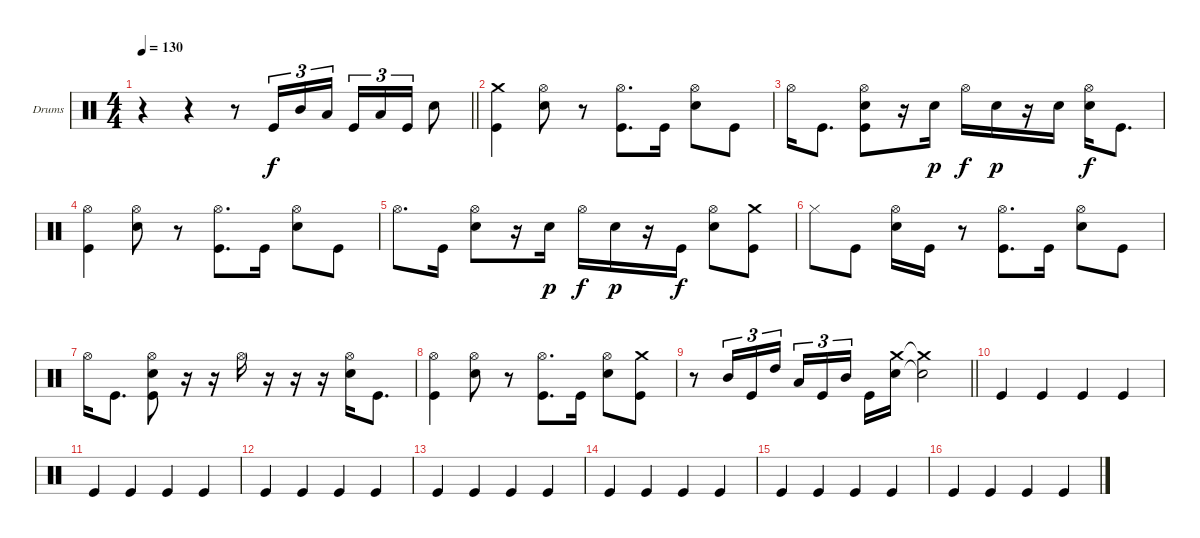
\defaultSystemsLayout 4
\bracketExtendMode groupsimilarinstruments
\firstSystemTrackNameOrientation horizontal
\otherSystemsTrackNameOrientation horizontal
\track ("Drumkit" "Drums") {instrument percussion}
\staff {score}
\articulation defaults
\ts (4 4)
\tempo 130
\clef neutral
\barLineRight lightlight
\ks c
r.4{dy f} r.4 r.8 "Kick (hit)".16{tu (3 2)} "Mid Tom (hit)".16{tu (3 2)} "Low Tom (hit)".16{tu (3 2)} "Kick (hit)".16{tu (3 2)} "Low Tom (hit)".16{tu (3 2)} "Kick (hit)".16{tu (3 2)} "Snare (hit) 2".8 |
("Kick (hit)" "Crash medium (hit)").4 ("Hi-Hat (open)" "Snare (hit) 2").8 r.8 ("Hi-Hat (open)" "Kick (hit)").8{d} "Kick (hit)".16 ("Hi-Hat (open)" "Snare (hit) 2").8 "Kick (hit)".8 |
"Hi-Hat (open)".16 "Kick (hit)".8{d} ("Hi-Hat (open)" "Snare (hit) 2" "Kick (hit)").8 r.16 "Snare (hit) 2".16{dy p} "Hi-Hat (open)".16{dy f} "Snare (hit) 2".16{dy p} r.16 "Snare (hit) 2".16 ("Hi-Hat (open)" "Snare (hit) 2").16{dy f} "Kick (hit)".8{d} |
("Kick (hit)" "Hi-Hat (open)").4 ("Hi-Hat (open)" "Snare (hit) 2").8 r.8 ("Hi-Hat (open)" "Kick (hit)").8{d} "Kick (hit)".16 ("Hi-Hat (open)" "Snare (hit) 2").8 "Kick (hit)".8 |
"Hi-Hat (open)".8{d} "Kick (hit)".16 ("Hi-Hat (open)" "Snare (hit) 2").8 r.16 "Snare (hit) 2".16{dy p} "Hi-Hat (open)".16{dy f} "Snare (hit) 2".16{dy p} r.16 "Kick (hit)".16{dy f} ("Hi-Hat (open)" "Snare (hit) 2").8 ("Kick (hit)" "Crash medium (hit)").8 |
"Hi-Hat (closed)".8 "Kick (hit)".8 ("Hi-Hat (open)" "Snare (hit) 2").16 "Kick (hit)".16 r.8 ("Hi-Hat (open)" "Kick (hit)").8{d} "Kick (hit)".16 ("Hi-Hat (open)" "Snare (hit) 2").8 "Kick (hit)".8 |
"Hi-Hat (open)".16 "Kick (hit)".8{d} ("Hi-Hat (open)" "Snare (hit) 2" "Kick (hit)").8 r.16 r.16 "Hi-Hat (open)".16 r.16 r.16 r.16 ("Hi-Hat (open)" "Snare (hit) 2").16 "Kick (hit)".8{d} |
("Kick (hit)" "Hi-Hat (open)").4 ("Hi-Hat (open)" "Snare (hit) 2").8 r.8 ("Hi-Hat (open)" "Kick (hit)").8{d} "Kick (hit)".16 ("Hi-Hat (open)" "Snare (hit) 2").8 ("Kick (hit)" "Crash medium (hit)").8 |
\barLineRight lightlight
r.8 "Mid Tom (hit)".16{tu (3 2)} "Kick (hit)".16{tu (3 2)} "High Tom (hit)".16{tu (3 2)} "Low Tom (hit)".16{tu (3 2)} "Kick (hit)".16{tu (3 2)} "Mid Tom (hit)".16{tu (3 2)} "Kick (hit)".16 ("Snare (hit) 2" "Crash medium (hit)").16 ("Snare (hit) 2"{t} "Crash medium (hit)"{t}).2 |
"Kick (hit)".4 "Kick (hit)".4 "Kick (hit)".4 "Kick (hit)".4 |
"Kick (hit)".4 "Kick (hit)".4 "Kick (hit)".4 "Kick (hit)".4 |
"Kick (hit)".4 "Kick (hit)".4 "Kick (hit)".4 "Kick (hit)".4 |
"Kick (hit)".4 "Kick (hit)".4 "Kick (hit)".4 "Kick (hit)".4 |
"Kick (hit)".4 "Kick (hit)".4 "Kick (hit)".4 "Kick (hit)".4 |
"Kick (hit)".4 "Kick (hit)".4 "Kick (hit)".4 "Kick (hit)".4 |
"Kick (hit)".4 "Kick (hit)".4 "Kick (hit)".4 "Kick (hit)".4
